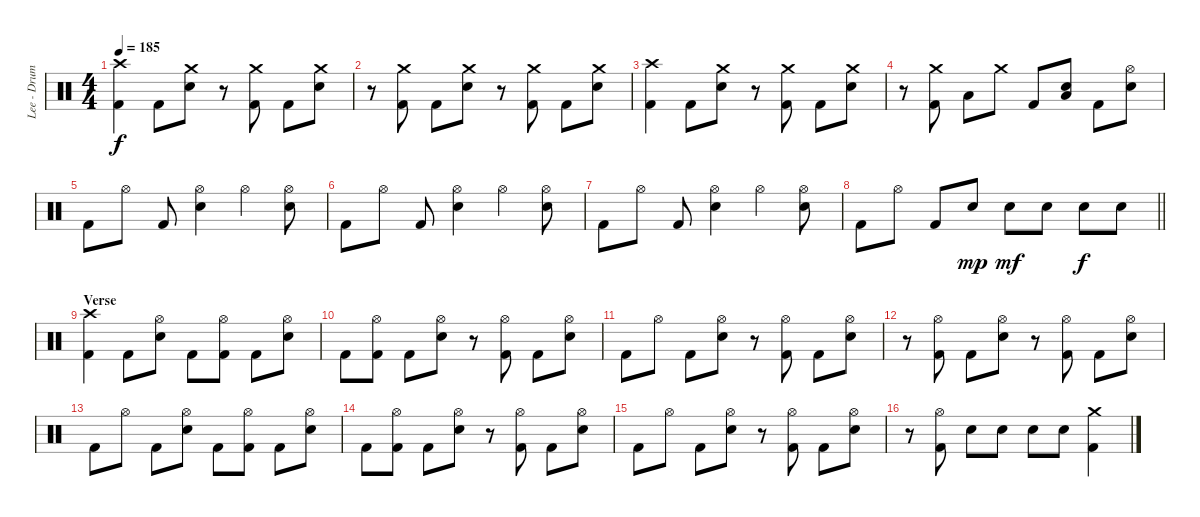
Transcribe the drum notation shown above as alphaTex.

\track ("Lee - Drums" "Lee - Drum") {instrument percussion}
\staff {score}
\articulation defaults
\ts (4 4)
\tempo 185
\clef neutral
\ks c
("Crash high (hit)" "Kick (hit) 2").4{dy f} "Kick (hit) 2".8 ("Crash medium (hit)" "Snare (hit) 2").8 r.8 ("Crash medium (hit)" "Kick (hit) 2").8 "Kick (hit) 2".8 ("Crash medium (hit)" "Snare (hit) 2").8 |
r.8 ("Crash medium (hit)" "Kick (hit) 2").8 "Kick (hit) 2".8 ("Crash medium (hit)" "Snare (hit) 2").8 r.8 ("Crash medium (hit)" "Kick (hit) 2").8 "Kick (hit) 2".8 ("Crash medium (hit)" "Snare (hit) 2").8 |
("Crash high (hit)" "Kick (hit) 2").4 "Kick (hit) 2".8 ("Crash medium (hit)" "Snare (hit) 2").8 r.8 ("Crash medium (hit)" "Kick (hit) 2").8 "Kick (hit) 2".8 ("Crash medium (hit)" "Snare (hit) 2").8 |
r.8 ("Crash medium (hit)" "Kick (hit) 2").8 "Low Tom (hit)".8 "Crash medium (hit)".8 "Kick (hit) 2".8 ("Snare (hit) 2" "Low Tom (hit)").8 "Kick (hit) 2".8 ("Hi-Hat (open)" "Snare (hit) 2").8 |
"Kick (hit) 2".8 "Hi-Hat (open)".8 "Kick (hit) 2".8 ("Hi-Hat (open)" "Snare (hit) 2").4 "Hi-Hat (open)".4 ("Hi-Hat (open)" "Snare (hit) 2").8 |
"Kick (hit) 2".8 "Hi-Hat (open)".8 "Kick (hit) 2".8 ("Hi-Hat (open)" "Snare (hit) 2").4 "Hi-Hat (open)".4 ("Hi-Hat (open)" "Snare (hit) 2").8 |
"Kick (hit) 2".8 "Hi-Hat (open)".8 "Kick (hit) 2".8 ("Hi-Hat (open)" "Snare (hit) 2").4 "Hi-Hat (open)".4 ("Hi-Hat (open)" "Snare (hit) 2").8 |
\barLineRight lightlight "Kick (hit) 2".8 "Hi-Hat (open)".8 "Kick (hit) 2".8 "Snare (hit) 2".8{dy mp} "Snare (hit) 2".8{dy mf} "Snare (hit) 2".8 "Snare (hit) 2".8{dy f} "Snare (hit) 2".8
|
\section ("" "Verse")
("Crash high (hit)" "Kick (hit) 2").4 "Kick (hit) 2".8 ("Hi-Hat (open)" "Snare (hit) 2").8 "Kick (hit) 2".8 ("Hi-Hat (open)" "Kick (hit) 2").8 "Kick (hit) 2".8 ("Hi-Hat (open)" "Snare (hit) 2").8 |
"Kick (hit) 2".8 ("Hi-Hat (open)" "Kick (hit) 2").8 "Kick (hit) 2".8 ("Hi-Hat (open)" "Snare (hit) 2").8 r.8 ("Hi-Hat (open)" "Kick (hit) 2").8 "Kick (hit) 2".8 ("Hi-Hat (open)" "Snare (hit) 2").8 |
"Kick (hit) 2".8 "Hi-Hat (open)".8 "Kick (hit) 2".8 ("Hi-Hat (open)" "Snare (hit) 2").8 r.8 ("Hi-Hat (open)" "Kick (hit) 2").8 "Kick (hit) 2".8 ("Hi-Hat (open)" "Snare (hit) 2").8 |
r.8 ("Hi-Hat (open)" "Kick (hit) 2").8 "Kick (hit) 2".8 ("Hi-Hat (open)" "Snare (hit) 2").8 r.8 ("Hi-Hat (open)" "Kick (hit) 2").8 "Kick (hit) 2".8 ("Hi-Hat (open)" "Snare (hit) 2").8 |
"Kick (hit) 2".8 "Hi-Hat (open)".8 "Kick (hit) 2".8 ("Hi-Hat (open)" "Snare (hit) 2").8 "Kick (hit) 2".8 ("Hi-Hat (open)" "Kick (hit) 2").8 "Kick (hit) 2".8 ("Hi-Hat (open)" "Snare (hit) 2").8 |
"Kick (hit) 2".8 ("Hi-Hat (open)" "Kick (hit) 2").8 "Kick (hit) 2".8 ("Hi-Hat (open)" "Snare (hit) 2").8 r.8 ("Hi-Hat (open)" "Kick (hit) 2").8 "Kick (hit) 2".8 ("Hi-Hat (open)" "Snare (hit) 2").8 |
"Kick (hit) 2".8 "Hi-Hat (open)".8 "Kick (hit) 2".8 ("Hi-Hat (open)" "Snare (hit) 2").8 r.8 ("Hi-Hat (open)" "Kick (hit) 2").8 "Kick (hit) 2".8 ("Hi-Hat (open)" "Snare (hit) 2").8 |
r.8 ("Hi-Hat (open)" "Kick (hit) 2").8 "Snare (hit) 2".8 "Snare (hit) 2".8 "Snare (hit) 2".8 "Snare (hit) 2".8 ("Crash medium (hit)" "Kick (hit) 2").4
